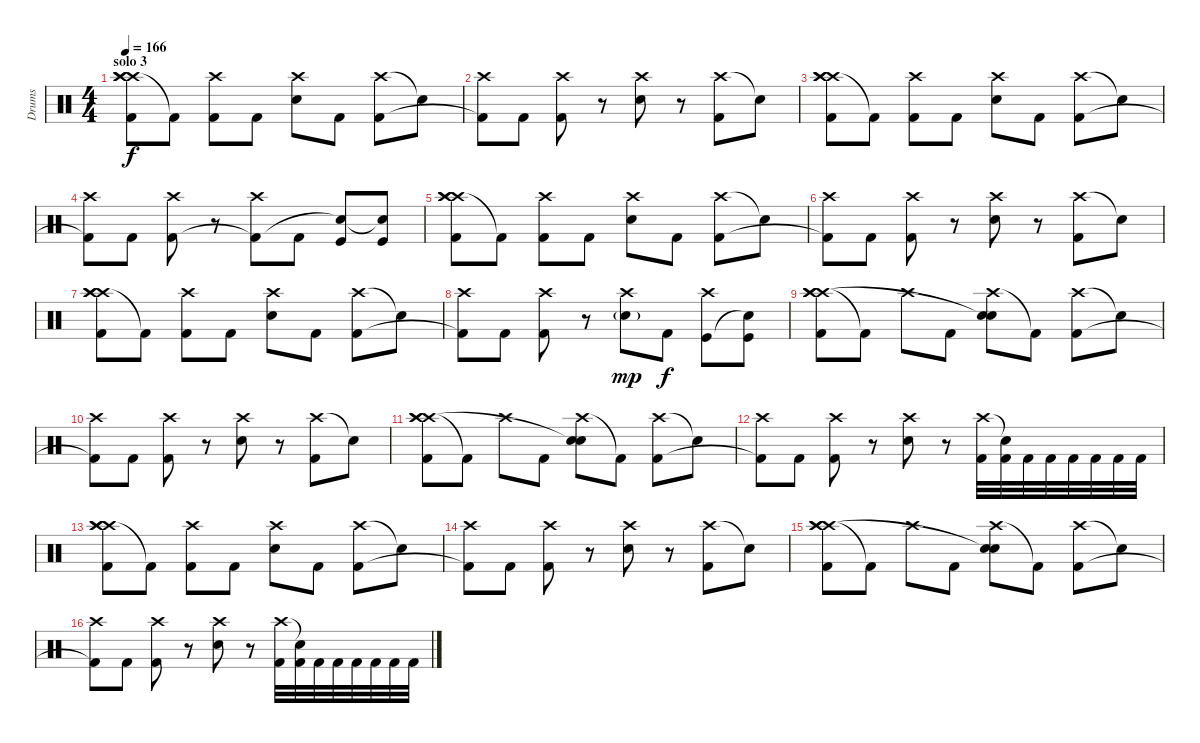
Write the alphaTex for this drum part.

\track ("Drums" "Drums") {instrument percussion}
\staff {score}
\articulation defaults
\ts (4 4)
\section ("" "solo 3")
\tempo 166
\clef neutral
\ks c
("Crash high (hit)" "Crash high (hit)" "Crash high (hit)" "Kick (hit) 2").8{dy f} "Kick (hit) 2"{t}.8 ("Crash high (hit)" "Kick (hit) 2").8 "Kick (hit) 2".8 ("Crash high (hit)" "Snare (hit) 2").8 "Kick (hit) 2".8 ("Crash high (hit)" "Kick (hit) 2").8 "Snare (hit)"{t}.8 |
("Crash high (hit)" "Kick (hit) 2"{t}).8 "Kick (hit) 2".8 ("Crash high (hit)" "Kick (hit) 2").8 r.8 ("Crash high (hit)" "Snare (hit) 2").8 r.8 ("Crash high (hit)" "Kick (hit) 2").8 "Snare (hit)"{t}.8 |
("Crash high (hit)" "Crash high (hit)" "Crash high (hit)" "Kick (hit) 2").8 "Kick (hit) 2"{t}.8 ("Crash high (hit)" "Kick (hit) 2").8 "Kick (hit) 2".8 ("Crash high (hit)" "Snare (hit) 2").8 "Kick (hit) 2".8 ("Crash high (hit)" "Kick (hit) 2").8 "Snare (hit)"{t}.8 |
("Crash high (hit)" "Kick (hit) 2"{t}).8 "Kick (hit) 2".8 ("Crash high (hit)" "Kick (hit) 2").8 r.8 ("Crash high (hit)" "Kick (hit) 2"{t}).8 "Kick (hit) 2".8 ("Kick (hit)" "Snare (hit)"{t}).8 ("Kick (hit)" "Snare (hit)"{t}).8 |
("Crash high (hit)" "Crash high (hit)" "Crash high (hit)" "Kick (hit) 2").8 "Kick (hit) 2"{t}.8 ("Crash high (hit)" "Kick (hit) 2").8 "Kick (hit) 2".8 ("Crash high (hit)" "Snare (hit) 2").8 "Kick (hit) 2".8 ("Crash high (hit)" "Kick (hit) 2").8 "Snare (hit)"{t}.8 |
("Crash high (hit)" "Kick (hit) 2"{t}).8 "Kick (hit) 2".8 ("Crash high (hit)" "Kick (hit) 2").8 r.8 ("Crash high (hit)" "Snare (hit) 2").8 r.8 ("Crash high (hit)" "Kick (hit) 2").8 "Snare (hit)"{t}.8 |
("Crash high (hit)" "Crash high (hit)" "Crash high (hit)" "Kick (hit) 2").8 "Kick (hit) 2"{t}.8 ("Crash high (hit)" "Kick (hit) 2").8 "Kick (hit) 2".8 ("Crash high (hit)" "Snare (hit) 2").8 "Kick (hit) 2".8 ("Crash high (hit)" "Kick (hit) 2").8 "Snare (hit)"{t}.8 |
("Crash high (hit)" "Kick (hit) 2"{t}).8 "Kick (hit) 2".8 ("Crash high (hit)" "Kick (hit) 2").8 r.8 ("Crash high (hit)" "Snare (hit) 2"{g}).8{dy mp} "Kick (hit) 2".8{dy f} ("Crash high (hit)" "Kick (hit)").8 ("Kick (hit)" "Snare (hit)"{t}).8 |
("Crash high (hit)" "Crash high (hit)" "Crash high (hit)" "Kick (hit) 2").8 "Kick (hit) 2"{t}.8 "Crash high (hit)".8 "Kick (hit) 2".8 ("Crash high (hit)" "Snare (hit) 2" "Snare (hit)"{t}).8 "Kick (hit) 2"{t}.8 ("Crash high (hit)" "Kick (hit) 2").8 "Snare (hit)"{t}.8 |
("Crash high (hit)" "Kick (hit) 2"{t}).8 "Kick (hit) 2".8 ("Crash high (hit)" "Kick (hit) 2").8 r.8 ("Crash high (hit)" "Snare (hit) 2").8 r.8 ("Crash high (hit)" "Kick (hit) 2").8 "Snare (hit)"{t}.8 |
("Crash high (hit)" "Crash high (hit)" "Crash high (hit)" "Kick (hit) 2").8 "Kick (hit) 2"{t}.8 "Crash high (hit)".8 "Kick (hit) 2".8 ("Crash high (hit)" "Snare (hit) 2" "Snare (hit)"{t}).8 "Kick (hit) 2"{t}.8 ("Crash high (hit)" "Kick (hit) 2").8 "Snare (hit)"{t}.8 |
("Crash high (hit)" "Kick (hit) 2"{t}).8 "Kick (hit) 2".8 ("Crash high (hit)" "Kick (hit) 2").8 r.8 ("Crash high (hit)" "Snare (hit) 2").8 r.8 ("Kick (hit) 2" "Crash high (hit)").32 ("Kick (hit) 2" "Snare (hit)"{t}).32 "Kick (hit) 2".32 "Kick (hit) 2".32 "Kick (hit) 2".32 "Kick (hit) 2".32 "Kick (hit) 2".32 "Kick (hit) 2".32 |
("Crash high (hit)" "Crash high (hit)" "Crash high (hit)" "Kick (hit) 2").8 "Kick (hit) 2"{t}.8 ("Crash high (hit)" "Kick (hit) 2").8 "Kick (hit) 2".8 ("Crash high (hit)" "Snare (hit) 2").8 "Kick (hit) 2".8 ("Crash high (hit)" "Kick (hit) 2").8 "Snare (hit)"{t}.8 |
("Crash high (hit)" "Kick (hit) 2"{t}).8 "Kick (hit) 2".8 ("Crash high (hit)" "Kick (hit) 2").8 r.8 ("Crash high (hit)" "Snare (hit) 2").8 r.8 ("Crash high (hit)" "Kick (hit) 2").8 "Snare (hit)"{t}.8 |
("Crash high (hit)" "Crash high (hit)" "Crash high (hit)" "Kick (hit) 2").8 "Kick (hit) 2"{t}.8 "Crash high (hit)".8 "Kick (hit) 2".8 ("Crash high (hit)" "Snare (hit) 2" "Snare (hit)"{t}).8 "Kick (hit) 2"{t}.8 ("Crash high (hit)" "Kick (hit) 2").8 "Snare (hit)"{t}.8 |
("Crash high (hit)" "Kick (hit) 2"{t}).8 "Kick (hit) 2".8 ("Crash high (hit)" "Kick (hit) 2").8 r.8 ("Crash high (hit)" "Snare (hit) 2").8 r.8 ("Kick (hit) 2" "Crash high (hit)").32 ("Kick (hit) 2" "Snare (hit)"{t}).32 "Kick (hit) 2".32 "Kick (hit) 2".32 "Kick (hit) 2".32 "Kick (hit) 2".32 "Kick (hit) 2".32 "Kick (hit) 2".32
